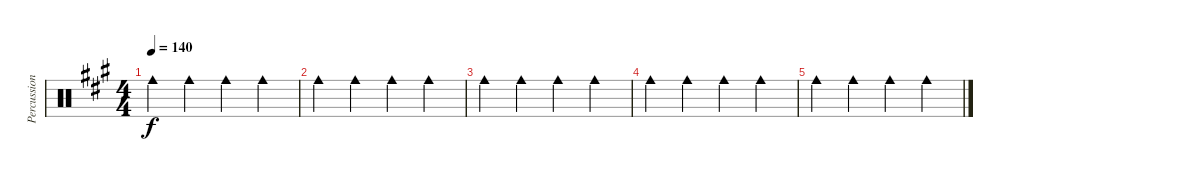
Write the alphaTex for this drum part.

\track ("Percussion" "Percussion") {instrument percussion}
\staff {score}
\articulation defaults
\ts (4 4)
\tempo 140
\clef neutral
\ks a "Cowbell medium (hit)".4{dy f} "Cowbell medium (hit)".4 "Cowbell medium (hit)".4 "Cowbell medium (hit)".4
|
"Cowbell medium (hit)".4 "Cowbell medium (hit)".4 "Cowbell medium (hit)".4 "Cowbell medium (hit)".4 |
"Cowbell medium (hit)".4 "Cowbell medium (hit)".4 "Cowbell medium (hit)".4 "Cowbell medium (hit)".4 |
"Cowbell medium (hit)".4 "Cowbell medium (hit)".4 "Cowbell medium (hit)".4 "Cowbell medium (hit)".4 |
"Cowbell medium (hit)".4 "Cowbell medium (hit)".4 "Cowbell medium (hit)".4 "Cowbell medium (hit)".4
